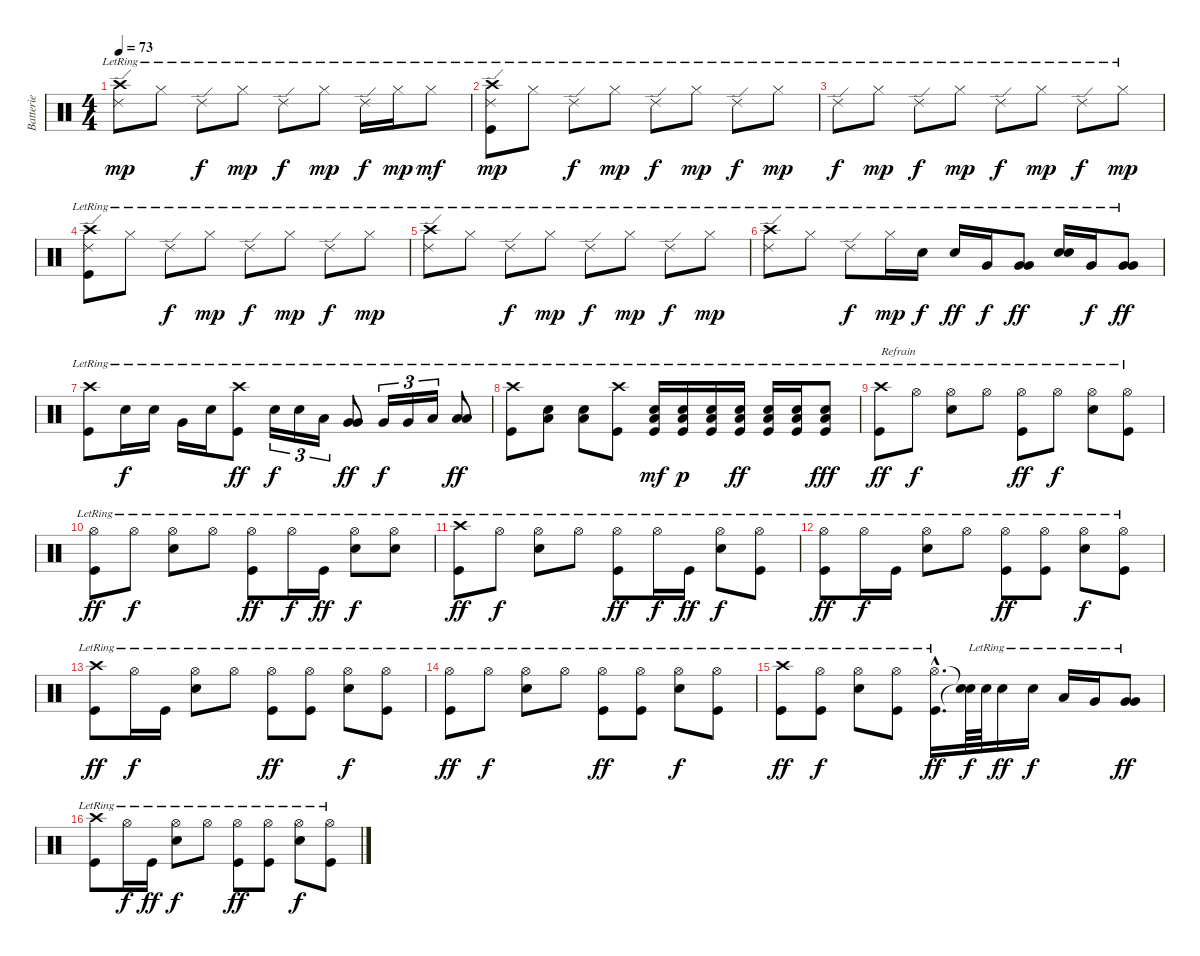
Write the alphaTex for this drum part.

\track ("Batterie" "Batterie") {instrument percussion}
\staff {score}
\articulation defaults
\ts (4 4)
\tempo 73
\clef neutral
\ks c
("Crash high (hit)"{lr} "Ride (edge) 2"{lr}).8{dy mp} "Hi-Hat (closed)"{lr}.8 "Ride (edge) 2"{lr}.8{dy f} "Hi-Hat (closed)"{lr}.8{dy mp} "Ride (edge) 2"{lr}.8{dy f} "Hi-Hat (closed)"{lr}.8{dy mp} "Ride (edge) 2"{lr}.16{dy f} "Hi-Hat (closed)"{lr}.16{dy mp} "Hi-Hat (closed)"{lr}.8{dy mf} |
("Crash high (hit)"{lr} "Ride (edge) 2"{lr} "Kick (hit)"{lr}).8{dy mp} "Hi-Hat (closed)"{lr}.8 "Ride (edge) 2"{lr}.8{dy f} "Hi-Hat (closed)"{lr}.8{dy mp} "Ride (edge) 2"{lr}.8{dy f} "Hi-Hat (closed)"{lr}.8{dy mp} "Ride (edge) 2"{lr}.8{dy f} "Hi-Hat (closed)"{lr}.8{dy mp} |
"Ride (edge) 2"{lr}.8{dy f} "Hi-Hat (closed)"{lr}.8{dy mp} "Ride (edge) 2"{lr}.8{dy f} "Hi-Hat (closed)"{lr}.8{dy mp} "Ride (edge) 2"{lr}.8{dy f} "Hi-Hat (closed)"{lr}.8{dy mp} "Ride (edge) 2"{lr}.8{dy f} "Hi-Hat (closed)"{lr}.8{dy mp} |
("Crash high (hit)"{lr} "Ride (edge) 2"{lr} "Kick (hit)"{lr}).8 "Hi-Hat (closed)"{lr}.8 "Ride (edge) 2"{lr}.8{dy f} "Hi-Hat (closed)"{lr}.8{dy mp} "Ride (edge) 2"{lr}.8{dy f} "Hi-Hat (closed)"{lr}.8{dy mp} "Ride (edge) 2"{lr}.8{dy f} "Hi-Hat (closed)"{lr}.8{dy mp} |
("Crash high (hit)"{lr} "Ride (edge) 2"{lr}).8 "Hi-Hat (closed)"{lr}.8 "Ride (edge) 2"{lr}.8{dy f} "Hi-Hat (closed)"{lr}.8{dy mp} "Ride (edge) 2"{lr}.8{dy f} "Hi-Hat (closed)"{lr}.8{dy mp} "Ride (edge) 2"{lr}.8{dy f} "Hi-Hat (closed)"{lr}.8{dy mp} |
("Crash high (hit)"{lr} "Ride (edge) 2"{lr}).8 "Hi-Hat (closed)"{lr}.8 "Ride (edge) 2"{lr}.8{dy f} "Hi-Hat (closed)"{lr}.16{dy mp} "Snare (hit) 2"{lr}.16{dy f} "Snare (hit) 2"{lr}.16{dy ff} "Very Low Tom (hit)"{lr}.16{dy f} ("Very Low Tom (hit)"{lr} "Very Low Tom (hit)"{lr}).8{bu 60 dy ff} ("Snare (hit) 2"{lr} "Snare (hit) 2"{lr}).16{bu 60} "Very Low Tom (hit)"{lr}.16{dy f} ("Very Low Tom (hit)"{lr} "Very Low Tom (hit)"{lr}).8{bu 60 dy ff} |
("Crash high (hit)"{lr} "Kick (hit)"{lr}).8 "Snare (hit) 2"{lr}.16{dy f} "Snare (hit) 2"{lr}.16 "Very Low Tom (hit)"{lr}.16 "Snare (hit) 2"{lr}.16 ("Crash high (hit)"{lr} "Kick (hit)"{lr}).8{dy ff} "Snare (hit) 2"{lr}.16{tu (3 2) dy f} "Snare (hit) 2"{lr}.16{tu (3 2)} "Low Tom (hit)"{lr}.16{tu (3 2)} ("Very Low Tom (hit)"{lr} "Very Low Tom (hit)"{lr}).8{bu 60 dy ff} "Very Low Tom (hit)"{lr}.16{tu (3 2) dy f} "Very Low Tom (hit)"{lr}.16{tu (3 2)} "Low Floor Tom (hit)"{lr}.16{tu (3 2)} ("Low Floor Tom (hit)"{lr} "Low Floor Tom (hit)"{lr}).8{bu 60 dy ff} |
("Crash high (hit)"{lr} "Kick (hit)"{lr}).8 ("Low Floor Tom (hit)"{lr} "Snare (hit) 2"{lr}).8{bu 60} ("Low Floor Tom (hit)"{lr} "Snare (hit) 2"{lr}).8{bu 60} ("Crash high (hit)"{lr} "Kick (hit)"{lr}).8 ("Low Floor Tom (hit)"{lr} "Snare (hit) 2"{lr} "Kick (hit)"{lr}).16{dy mf} ("Low Floor Tom (hit)"{lr} "Snare (hit) 2"{lr} "Kick (hit)"{lr}).16{dy p} ("Low Floor Tom (hit)"{lr} "Snare (hit) 2"{lr} "Kick (hit)"{lr}).16 ("Low Floor Tom (hit)"{lr} "Snare (hit) 2"{lr} "Kick (hit)"{lr}).16{dy ff} ("Low Floor Tom (hit)"{lr} "Snare (hit) 2"{lr} "Kick (hit)"{lr}).16 ("Low Floor Tom (hit)"{lr} "Snare (hit) 2"{lr} "Kick (hit)"{lr}).16 ("Low Floor Tom (hit)"{lr} "Snare (hit) 2"{lr} "Kick (hit)"{lr}).8{dy fff} |
("Crash high (hit)"{lr} "Kick (hit)"{lr}).8{txt "Refrain" dy ff} "Hi-Hat (open)"{lr}.8{dy f} ("Hi-Hat (open)"{lr} "Snare (hit) 2"{lr}).8 "Hi-Hat (open)"{lr}.8 ("Hi-Hat (open)"{lr} "Kick (hit)"{lr}).8{dy ff} "Hi-Hat (open)"{lr}.8{dy f} ("Hi-Hat (open)"{lr} "Snare (hit) 2"{lr}).8 ("Hi-Hat (open)"{lr} "Kick (hit)"{lr}).8 |
("Hi-Hat (open)"{lr} "Kick (hit)"{lr}).8{dy ff} "Hi-Hat (open)"{lr}.8{dy f} ("Hi-Hat (open)"{lr} "Snare (hit) 2"{lr}).8 "Hi-Hat (open)"{lr}.8 ("Hi-Hat (open)"{lr} "Kick (hit)"{lr}).8{dy ff} "Hi-Hat (open)"{lr}.16{dy f} "Kick (hit)"{lr}.16{dy ff} ("Hi-Hat (open)"{lr} "Snare (hit) 2"{lr}).8{dy f} ("Hi-Hat (open)"{lr} "Snare (hit) 2"{lr}).8 |
("Crash high (hit)"{lr} "Kick (hit)"{lr}).8{dy ff} "Hi-Hat (open)"{lr}.8{dy f} ("Hi-Hat (open)"{lr} "Snare (hit) 2"{lr}).8 "Hi-Hat (open)"{lr}.8 ("Hi-Hat (open)"{lr} "Kick (hit)"{lr}).8{dy ff} "Hi-Hat (open)"{lr}.16{dy f} "Kick (hit)"{lr}.16{dy ff} ("Hi-Hat (open)"{lr} "Snare (hit) 2"{lr}).8{dy f} ("Hi-Hat (open)"{lr} "Kick (hit)"{lr}).8 |
("Hi-Hat (open)"{lr} "Kick (hit)"{lr}).8{dy ff} "Hi-Hat (open)"{lr}.16{dy f} "Kick (hit)"{lr}.16 ("Hi-Hat (open)"{lr} "Snare (hit) 2"{lr}).8 "Hi-Hat (open)"{lr}.8 ("Hi-Hat (open)"{lr} "Kick (hit)"{lr}).8{dy ff} ("Hi-Hat (open)"{lr} "Kick (hit)"{lr}).8 ("Hi-Hat (open)"{lr} "Snare (hit) 2"{lr}).8{dy f} ("Hi-Hat (open)"{lr} "Kick (hit)"{lr}).8 |
("Crash high (hit)"{lr} "Kick (hit)"{lr}).8{dy ff} "Hi-Hat (open)"{lr}.16{dy f} "Kick (hit)"{lr}.16 ("Hi-Hat (open)"{lr} "Snare (hit) 2"{lr}).8 "Hi-Hat (open)"{lr}.8 ("Hi-Hat (open)"{lr} "Kick (hit)"{lr}).8{dy ff} ("Hi-Hat (open)"{lr} "Kick (hit)"{lr}).8 ("Hi-Hat (open)"{lr} "Snare (hit) 2"{lr}).8{dy f} ("Hi-Hat (open)"{lr} "Kick (hit)"{lr}).8 |
("Hi-Hat (open)"{lr} "Kick (hit)"{lr}).8{dy ff} "Hi-Hat (open)"{lr}.8{dy f} ("Hi-Hat (open)"{lr} "Snare (hit) 2"{lr}).8 "Hi-Hat (open)"{lr}.8 ("Hi-Hat (open)"{lr} "Kick (hit)"{lr}).8{dy ff} ("Hi-Hat (open)"{lr} "Kick (hit)"{lr}).8 ("Hi-Hat (open)"{lr} "Snare (hit) 2"{lr}).8{dy f} ("Hi-Hat (open)"{lr} "Kick (hit)"{lr}).8 |
("Crash high (hit)"{lr} "Kick (hit)"{lr}).8{dy ff} ("Hi-Hat (open)"{lr} "Kick (hit)"{lr}).8{dy f} ("Hi-Hat (open)"{lr} "Snare (hit) 2"{lr}).8 ("Hi-Hat (open)"{lr} "Kick (hit)"{lr}).8 ("Hi-Hat (open)"{hac lr} "Kick (hit)"{hac lr}).16{d dy ff} ("Snare (hit)"{t} "Snare (hit)"{t}).64{dy f} "Snare (hit) 2"{lr}.64 "Snare (hit) 2"{lr}.16{dy ff} "Snare (hit) 2"{lr}.16{dy f} "Low Tom (hit)"{lr}.16 "Very Low Tom (hit)"{lr}.16 ("Very Low Tom (hit)"{lr} "Very Low Tom (hit)"{lr}).8{bu 60 dy ff} |
("Crash high (hit)"{lr} "Kick (hit)"{lr}).8 "Hi-Hat (open)"{lr}.16{dy f} "Kick (hit)"{lr}.16{dy ff} ("Hi-Hat (open)"{lr} "Snare (hit) 2"{lr}).8{dy f} "Hi-Hat (open)"{lr}.8 ("Hi-Hat (open)"{lr} "Kick (hit)"{lr}).8{dy ff} ("Hi-Hat (open)"{lr} "Kick (hit)"{lr}).8 ("Hi-Hat (open)"{lr} "Snare (hit) 2"{lr}).8{dy f} ("Hi-Hat (open)"{lr} "Kick (hit)"{lr}).8
